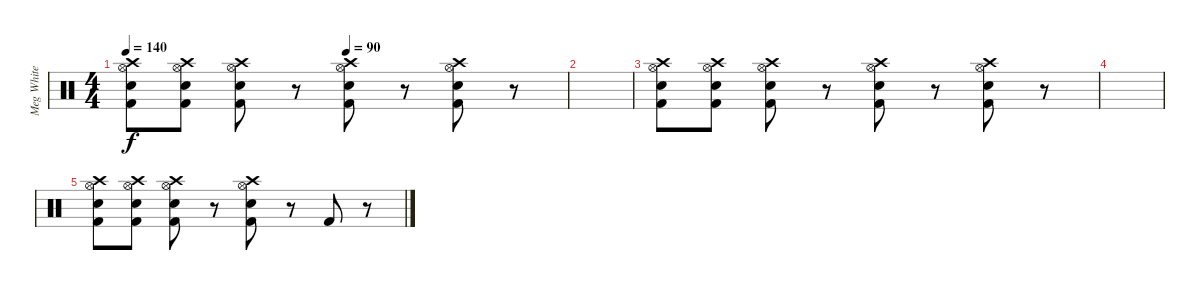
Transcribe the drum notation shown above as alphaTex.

\track ("Meg White" "Meg White") {instrument percussion}
\staff {score}
\articulation defaults
\ts (4 4)
\tempo 140
\tempo (90 0.5)
\clef neutral
\ks c
("Crash high (hit)" "Electric Snare (hit)" "Kick (hit) 2" "Hi-Hat (open)").8{dy f} ("Crash high (hit)" "Electric Snare (hit)" "Kick (hit) 2" "Hi-Hat (open)").8 ("Crash high (hit)" "Electric Snare (hit)" "Kick (hit) 2" "Hi-Hat (open)").8 r.8 ("Crash high (hit)" "Electric Snare (hit)" "Kick (hit) 2" "Hi-Hat (open)").8 r.8 ("Crash high (hit)" "Electric Snare (hit)" "Kick (hit) 2" "Hi-Hat (open)").8 r.8 |
|
("Crash high (hit)" "Electric Snare (hit)" "Kick (hit) 2" "Hi-Hat (open)").8 ("Crash high (hit)" "Electric Snare (hit)" "Kick (hit) 2" "Hi-Hat (open)").8 ("Crash high (hit)" "Electric Snare (hit)" "Kick (hit) 2" "Hi-Hat (open)").8 r.8 ("Crash high (hit)" "Electric Snare (hit)" "Kick (hit) 2" "Hi-Hat (open)").8 r.8 ("Crash high (hit)" "Electric Snare (hit)" "Kick (hit) 2" "Hi-Hat (open)").8 r.8 |
|
("Crash high (hit)" "Electric Snare (hit)" "Kick (hit) 2" "Hi-Hat (open)").8 ("Crash high (hit)" "Electric Snare (hit)" "Kick (hit) 2" "Hi-Hat (open)").8 ("Crash high (hit)" "Electric Snare (hit)" "Kick (hit) 2" "Hi-Hat (open)").8 r.8 ("Crash high (hit)" "Electric Snare (hit)" "Kick (hit) 2" "Hi-Hat (open)").8 r.8 "Kick (hit) 2".8 r.8
